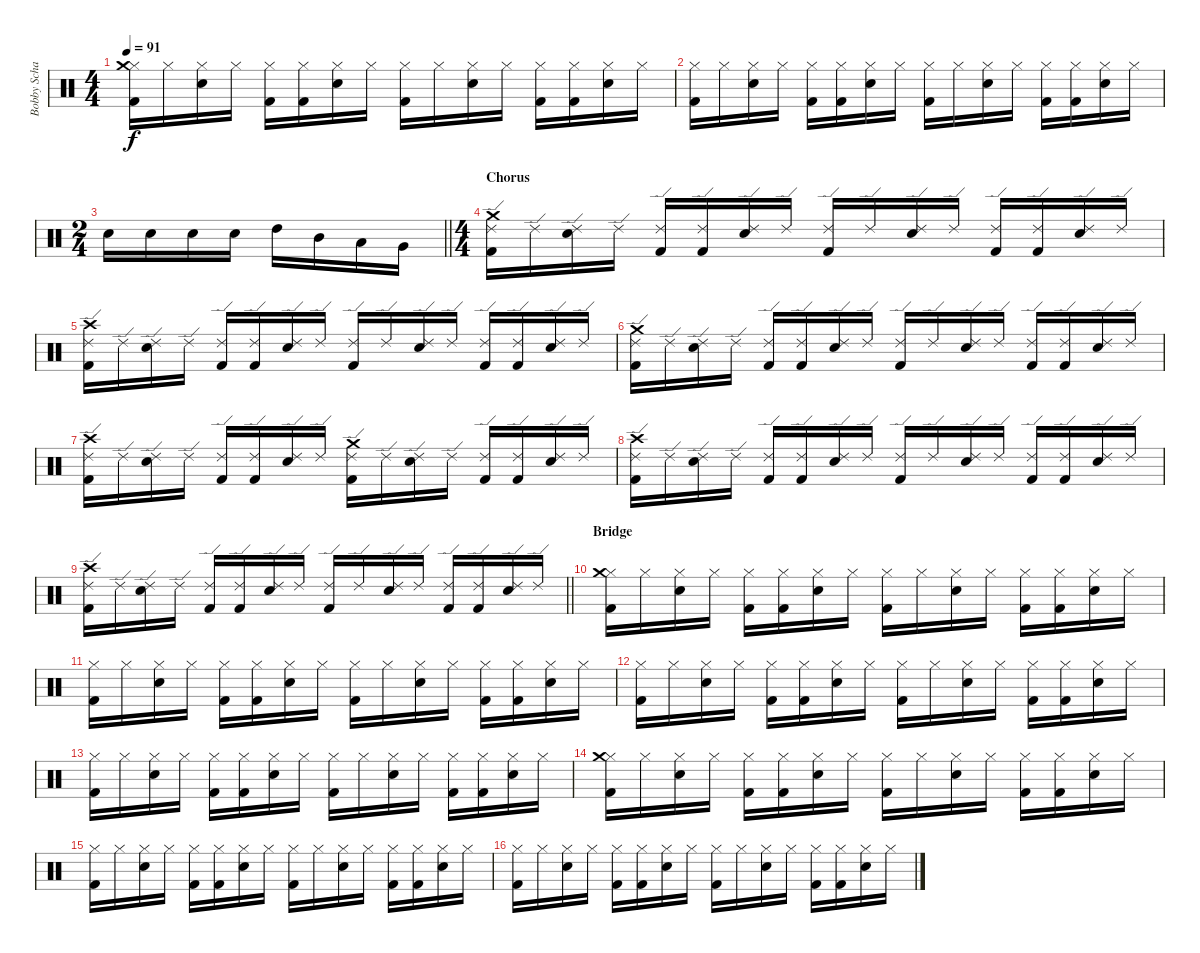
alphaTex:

\track ("Bobby Schayer " "Bobby Scha") {instrument percussion}
\staff {score}
\articulation defaults
\ts (4 4)
\tempo 91
\clef neutral
\ks c
("Hi-Hat (closed)" "Crash medium (hit)" "Kick (hit) 2").16{dy f} "Hi-Hat (closed)".16 ("Hi-Hat (closed)" "Snare (hit) 2").16 "Hi-Hat (closed)".16 ("Hi-Hat (closed)" "Kick (hit) 2").16 ("Hi-Hat (closed)" "Kick (hit) 2").16 ("Hi-Hat (closed)" "Snare (hit) 2").16 "Hi-Hat (closed)".16 ("Hi-Hat (closed)" "Kick (hit) 2").16 "Hi-Hat (closed)".16 ("Hi-Hat (closed)" "Snare (hit) 2").16 "Hi-Hat (closed)".16 ("Hi-Hat (closed)" "Kick (hit) 2").16 ("Hi-Hat (closed)" "Kick (hit) 2").16 ("Hi-Hat (closed)" "Snare (hit) 2").16 "Hi-Hat (closed)".16 |
("Hi-Hat (closed)" "Kick (hit) 2").16 "Hi-Hat (closed)".16 ("Hi-Hat (closed)" "Snare (hit) 2").16 "Hi-Hat (closed)".16 ("Hi-Hat (closed)" "Kick (hit) 2").16 ("Hi-Hat (closed)" "Kick (hit) 2").16 ("Hi-Hat (closed)" "Snare (hit) 2").16 "Hi-Hat (closed)".16 ("Hi-Hat (closed)" "Kick (hit) 2").16 "Hi-Hat (closed)".16 ("Hi-Hat (closed)" "Snare (hit) 2").16 "Hi-Hat (closed)".16 ("Hi-Hat (closed)" "Kick (hit) 2").16 ("Hi-Hat (closed)" "Kick (hit) 2").16 ("Hi-Hat (closed)" "Snare (hit) 2").16 "Hi-Hat (closed)".16 |
\ts (2 4)
\barLineRight lightlight "Snare (hit) 2".16 "Snare (hit) 2".16 "Snare (hit) 2".16 "Snare (hit) 2".16 "High Tom (hit)".16 "Mid Tom (hit)".16 "Low Tom (hit)".16 "Very Low Tom (hit)".16
|
\ts (4 4)
\section ("" "Chorus")
("Ride (edge) 2" "Crash medium (hit)" "Kick (hit) 2").16 "Ride (edge) 2".16 ("Ride (edge) 2" "Snare (hit) 2").16 "Ride (edge) 2".16 ("Ride (edge) 2" "Kick (hit) 2").16 ("Ride (edge) 2" "Kick (hit) 2").16 ("Ride (edge) 2" "Snare (hit) 2").16 "Ride (edge) 2".16 ("Ride (edge) 2" "Kick (hit) 2").16 "Ride (edge) 2".16 ("Ride (edge) 2" "Snare (hit) 2").16 "Ride (edge) 2".16 ("Ride (edge) 2" "Kick (hit) 2").16 ("Ride (edge) 2" "Kick (hit) 2").16 ("Ride (edge) 2" "Snare (hit) 2").16 "Ride (edge) 2".16 |
("Ride (edge) 2" "Crash high (hit)" "Kick (hit) 2").16 "Ride (edge) 2".16 ("Ride (edge) 2" "Snare (hit) 2").16 "Ride (edge) 2".16 ("Ride (edge) 2" "Kick (hit) 2").16 ("Ride (edge) 2" "Kick (hit) 2").16 ("Ride (edge) 2" "Snare (hit) 2").16 "Ride (edge) 2".16 ("Ride (edge) 2" "Kick (hit) 2").16 "Ride (edge) 2".16 ("Ride (edge) 2" "Snare (hit) 2").16 "Ride (edge) 2".16 ("Ride (edge) 2" "Kick (hit) 2").16 ("Ride (edge) 2" "Kick (hit) 2").16 ("Ride (edge) 2" "Snare (hit) 2").16 "Ride (edge) 2".16 |
("Ride (edge) 2" "Crash medium (hit)" "Kick (hit) 2").16 "Ride (edge) 2".16 ("Ride (edge) 2" "Snare (hit) 2").16 "Ride (edge) 2".16 ("Ride (edge) 2" "Kick (hit) 2").16 ("Ride (edge) 2" "Kick (hit) 2").16 ("Ride (edge) 2" "Snare (hit) 2").16 "Ride (edge) 2".16 ("Ride (edge) 2" "Kick (hit) 2").16 "Ride (edge) 2".16 ("Ride (edge) 2" "Snare (hit) 2").16 "Ride (edge) 2".16 ("Ride (edge) 2" "Kick (hit) 2").16 ("Ride (edge) 2" "Kick (hit) 2").16 ("Ride (edge) 2" "Snare (hit) 2").16 "Ride (edge) 2".16 |
("Ride (edge) 2" "Crash high (hit)" "Kick (hit) 2").16 "Ride (edge) 2".16 ("Ride (edge) 2" "Snare (hit) 2").16 "Ride (edge) 2".16 ("Ride (edge) 2" "Kick (hit) 2").16 ("Ride (edge) 2" "Kick (hit) 2").16 ("Ride (edge) 2" "Snare (hit) 2").16 "Ride (edge) 2".16 ("Ride (edge) 2" "Crash medium (hit)" "Kick (hit) 2").16 "Ride (edge) 2".16 ("Ride (edge) 2" "Snare (hit) 2").16 "Ride (edge) 2".16 ("Ride (edge) 2" "Kick (hit) 2").16 ("Ride (edge) 2" "Kick (hit) 2").16 ("Ride (edge) 2" "Snare (hit) 2").16 "Ride (edge) 2".16 |
("Ride (edge) 2" "Crash high (hit)" "Kick (hit) 2").16 "Ride (edge) 2".16 ("Ride (edge) 2" "Snare (hit) 2").16 "Ride (edge) 2".16 ("Ride (edge) 2" "Kick (hit) 2").16 ("Ride (edge) 2" "Kick (hit) 2").16 ("Ride (edge) 2" "Snare (hit) 2").16 "Ride (edge) 2".16 ("Ride (edge) 2" "Kick (hit) 2").16 "Ride (edge) 2".16 ("Ride (edge) 2" "Snare (hit) 2").16 "Ride (edge) 2".16 ("Ride (edge) 2" "Kick (hit) 2").16 ("Ride (edge) 2" "Kick (hit) 2").16 ("Ride (edge) 2" "Snare (hit) 2").16 "Ride (edge) 2".16 |
\barLineRight lightlight
("Ride (edge) 2" "Crash high (hit)" "Kick (hit) 2").16 "Ride (edge) 2".16 ("Ride (edge) 2" "Snare (hit) 2").16 "Ride (edge) 2".16 ("Ride (edge) 2" "Kick (hit) 2").16 ("Ride (edge) 2" "Kick (hit) 2").16 ("Ride (edge) 2" "Snare (hit) 2").16 "Ride (edge) 2".16 ("Ride (edge) 2" "Kick (hit) 2").16 "Ride (edge) 2".16 ("Ride (edge) 2" "Snare (hit) 2").16 "Ride (edge) 2".16 ("Ride (edge) 2" "Kick (hit) 2").16 ("Ride (edge) 2" "Kick (hit) 2").16 ("Ride (edge) 2" "Snare (hit) 2").16 "Ride (edge) 2".16 |
\section ("" "Bridge")
("Hi-Hat (closed)" "Crash medium (hit)" "Kick (hit) 2").16 "Hi-Hat (closed)".16 ("Hi-Hat (closed)" "Snare (hit) 2").16 "Hi-Hat (closed)".16 ("Hi-Hat (closed)" "Kick (hit) 2").16 ("Hi-Hat (closed)" "Kick (hit) 2").16 ("Hi-Hat (closed)" "Snare (hit) 2").16 "Hi-Hat (closed)".16 ("Hi-Hat (closed)" "Kick (hit) 2").16 "Hi-Hat (closed)".16 ("Hi-Hat (closed)" "Snare (hit) 2").16 "Hi-Hat (closed)".16 ("Hi-Hat (closed)" "Kick (hit) 2").16 ("Hi-Hat (closed)" "Kick (hit) 2").16 ("Hi-Hat (closed)" "Snare (hit) 2").16 "Hi-Hat (closed)".16 |
("Hi-Hat (closed)" "Kick (hit) 2").16 "Hi-Hat (closed)".16 ("Hi-Hat (closed)" "Snare (hit) 2").16 "Hi-Hat (closed)".16 ("Hi-Hat (closed)" "Kick (hit) 2").16 ("Hi-Hat (closed)" "Kick (hit) 2").16 ("Hi-Hat (closed)" "Snare (hit) 2").16 "Hi-Hat (closed)".16 ("Hi-Hat (closed)" "Kick (hit) 2").16 "Hi-Hat (closed)".16 ("Hi-Hat (closed)" "Snare (hit) 2").16 "Hi-Hat (closed)".16 ("Hi-Hat (closed)" "Kick (hit) 2").16 ("Hi-Hat (closed)" "Kick (hit) 2").16 ("Hi-Hat (closed)" "Snare (hit) 2").16 "Hi-Hat (closed)".16 |
("Hi-Hat (closed)" "Kick (hit) 2").16 "Hi-Hat (closed)".16 ("Hi-Hat (closed)" "Snare (hit) 2").16 "Hi-Hat (closed)".16 ("Hi-Hat (closed)" "Kick (hit) 2").16 ("Hi-Hat (closed)" "Kick (hit) 2").16 ("Hi-Hat (closed)" "Snare (hit) 2").16 "Hi-Hat (closed)".16 ("Hi-Hat (closed)" "Kick (hit) 2").16 "Hi-Hat (closed)".16 ("Hi-Hat (closed)" "Snare (hit) 2").16 "Hi-Hat (closed)".16 ("Hi-Hat (closed)" "Kick (hit) 2").16 ("Hi-Hat (closed)" "Kick (hit) 2").16 ("Hi-Hat (closed)" "Snare (hit) 2").16 "Hi-Hat (closed)".16 |
("Hi-Hat (closed)" "Kick (hit) 2").16 "Hi-Hat (closed)".16 ("Hi-Hat (closed)" "Snare (hit) 2").16 "Hi-Hat (closed)".16 ("Hi-Hat (closed)" "Kick (hit) 2").16 ("Hi-Hat (closed)" "Kick (hit) 2").16 ("Hi-Hat (closed)" "Snare (hit) 2").16 "Hi-Hat (closed)".16 ("Hi-Hat (closed)" "Kick (hit) 2").16 "Hi-Hat (closed)".16 ("Hi-Hat (closed)" "Snare (hit) 2").16 "Hi-Hat (closed)".16 ("Hi-Hat (closed)" "Kick (hit) 2").16 ("Hi-Hat (closed)" "Kick (hit) 2").16 ("Hi-Hat (closed)" "Snare (hit) 2").16 "Hi-Hat (closed)".16 |
("Hi-Hat (closed)" "Crash medium (hit)" "Kick (hit) 2").16 "Hi-Hat (closed)".16 ("Hi-Hat (closed)" "Snare (hit) 2").16 "Hi-Hat (closed)".16 ("Hi-Hat (closed)" "Kick (hit) 2").16 ("Hi-Hat (closed)" "Kick (hit) 2").16 ("Hi-Hat (closed)" "Snare (hit) 2").16 "Hi-Hat (closed)".16 ("Hi-Hat (closed)" "Kick (hit) 2").16 "Hi-Hat (closed)".16 ("Hi-Hat (closed)" "Snare (hit) 2").16 "Hi-Hat (closed)".16 ("Hi-Hat (closed)" "Kick (hit) 2").16 ("Hi-Hat (closed)" "Kick (hit) 2").16 ("Hi-Hat (closed)" "Snare (hit) 2").16 "Hi-Hat (closed)".16 |
("Hi-Hat (closed)" "Kick (hit) 2").16 "Hi-Hat (closed)".16 ("Hi-Hat (closed)" "Snare (hit) 2").16 "Hi-Hat (closed)".16 ("Hi-Hat (closed)" "Kick (hit) 2").16 ("Hi-Hat (closed)" "Kick (hit) 2").16 ("Hi-Hat (closed)" "Snare (hit) 2").16 "Hi-Hat (closed)".16 ("Hi-Hat (closed)" "Kick (hit) 2").16 "Hi-Hat (closed)".16 ("Hi-Hat (closed)" "Snare (hit) 2").16 "Hi-Hat (closed)".16 ("Hi-Hat (closed)" "Kick (hit) 2").16 ("Hi-Hat (closed)" "Kick (hit) 2").16 ("Hi-Hat (closed)" "Snare (hit) 2").16 "Hi-Hat (closed)".16 |
("Hi-Hat (closed)" "Kick (hit) 2").16 "Hi-Hat (closed)".16 ("Hi-Hat (closed)" "Snare (hit) 2").16 "Hi-Hat (closed)".16 ("Hi-Hat (closed)" "Kick (hit) 2").16 ("Hi-Hat (closed)" "Kick (hit) 2").16 ("Hi-Hat (closed)" "Snare (hit) 2").16 "Hi-Hat (closed)".16 ("Hi-Hat (closed)" "Kick (hit) 2").16 "Hi-Hat (closed)".16 ("Hi-Hat (closed)" "Snare (hit) 2").16 "Hi-Hat (closed)".16 ("Hi-Hat (closed)" "Kick (hit) 2").16 ("Hi-Hat (closed)" "Kick (hit) 2").16 ("Hi-Hat (closed)" "Snare (hit) 2").16 "Hi-Hat (closed)".16
